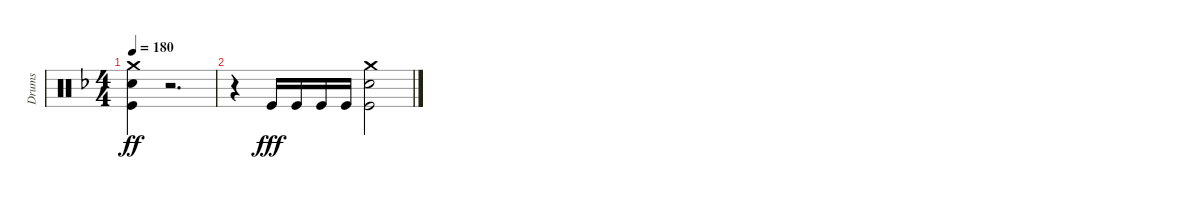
\track ("Drums" "Drums") {instrument percussion}
\staff {score}
\articulation defaults
\ts (4 4)
\tempo 180
\clef neutral
\ks dminor
("Crash medium (hit)" "Snare (hit) 2" "Kick (hit)").4{dy ff} r.2{d} |
r.4 "Kick (hit)".16{dy fff} "Kick (hit)".16 "Kick (hit)".16 "Kick (hit)".16 ("Crash medium (hit)" "Snare (hit) 2" "Kick (hit)").2
